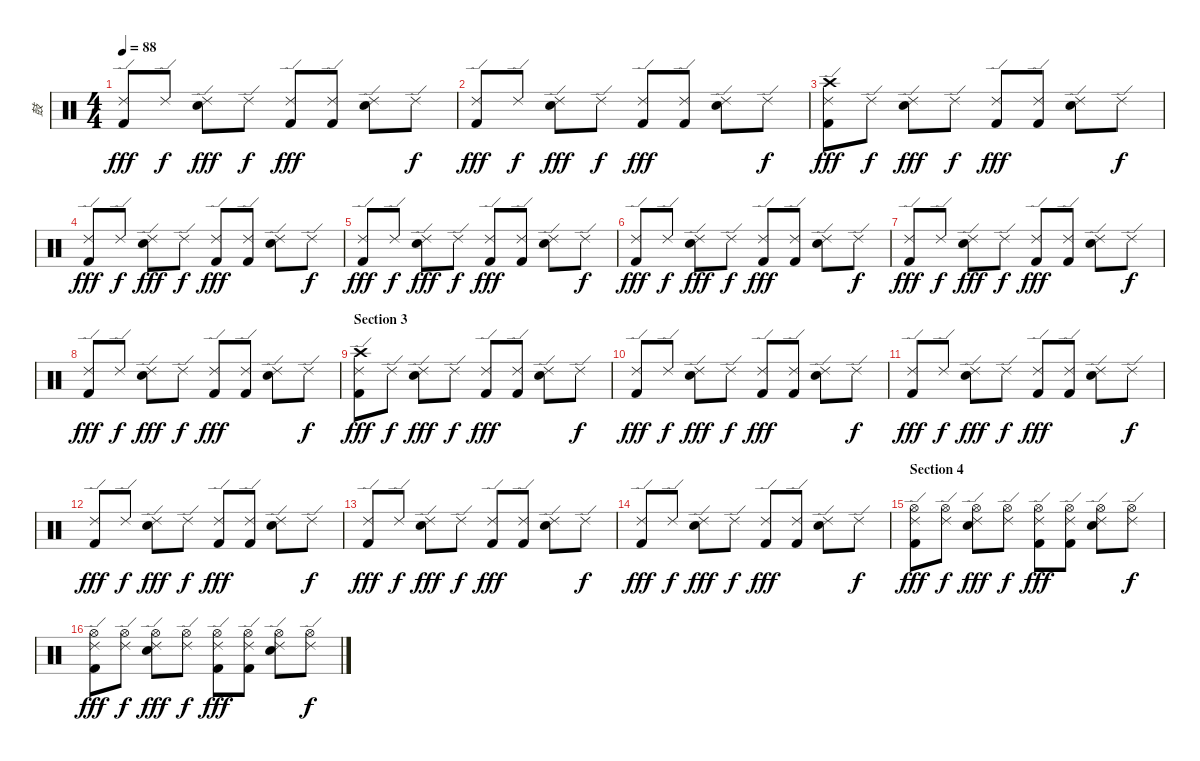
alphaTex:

\track ("鼓" "鼓") {instrument percussion}
\staff {score}
\articulation defaults
\ts (4 4)
\tempo 88
\clef neutral
\ks c
("Ride (edge) 2" "Kick (hit) 2").8{dy fff} "Ride (edge) 2".8{dy f} ("Ride (edge) 2" "Snare (hit) 2").8{dy fff} "Ride (edge) 2".8{dy f} ("Ride (edge) 2" "Kick (hit) 2").8{dy fff} ("Ride (edge) 2" "Kick (hit) 2").8 ("Ride (edge) 2" "Snare (hit) 2").8 "Ride (edge) 2".8{dy f} |
("Ride (edge) 2" "Kick (hit) 2").8{dy fff} "Ride (edge) 2".8{dy f} ("Ride (edge) 2" "Snare (hit) 2").8{dy fff} "Ride (edge) 2".8{dy f} ("Ride (edge) 2" "Kick (hit) 2").8{dy fff} ("Ride (edge) 2" "Kick (hit) 2").8 ("Ride (edge) 2" "Snare (hit) 2").8 "Ride (edge) 2".8{dy f} |
("Ride (edge) 2" "Crash high (hit)" "Kick (hit) 2").8{dy fff} "Ride (edge) 2".8{dy f} ("Ride (edge) 2" "Snare (hit) 2").8{dy fff} "Ride (edge) 2".8{dy f} ("Ride (edge) 2" "Kick (hit) 2").8{dy fff} ("Ride (edge) 2" "Kick (hit) 2").8 ("Ride (edge) 2" "Snare (hit) 2").8 "Ride (edge) 2".8{dy f} |
("Ride (edge) 2" "Kick (hit) 2").8{dy fff} "Ride (edge) 2".8{dy f} ("Ride (edge) 2" "Snare (hit) 2").8{dy fff} "Ride (edge) 2".8{dy f} ("Ride (edge) 2" "Kick (hit) 2").8{dy fff} ("Ride (edge) 2" "Kick (hit) 2").8 ("Ride (edge) 2" "Snare (hit) 2").8 "Ride (edge) 2".8{dy f} |
("Ride (edge) 2" "Kick (hit) 2").8{dy fff} "Ride (edge) 2".8{dy f} ("Ride (edge) 2" "Snare (hit) 2").8{dy fff} "Ride (edge) 2".8{dy f} ("Ride (edge) 2" "Kick (hit) 2").8{dy fff} ("Ride (edge) 2" "Kick (hit) 2").8 ("Ride (edge) 2" "Snare (hit) 2").8 "Ride (edge) 2".8{dy f} |
("Ride (edge) 2" "Kick (hit) 2").8{dy fff} "Ride (edge) 2".8{dy f} ("Ride (edge) 2" "Snare (hit) 2").8{dy fff} "Ride (edge) 2".8{dy f} ("Ride (edge) 2" "Kick (hit) 2").8{dy fff} ("Ride (edge) 2" "Kick (hit) 2").8 ("Ride (edge) 2" "Snare (hit) 2").8 "Ride (edge) 2".8{dy f} |
("Ride (edge) 2" "Kick (hit) 2").8{dy fff} "Ride (edge) 2".8{dy f} ("Ride (edge) 2" "Snare (hit) 2").8{dy fff} "Ride (edge) 2".8{dy f} ("Ride (edge) 2" "Kick (hit) 2").8{dy fff} ("Ride (edge) 2" "Kick (hit) 2").8 ("Ride (edge) 2" "Snare (hit) 2").8 "Ride (edge) 2".8{dy f} |
("Ride (edge) 2" "Kick (hit) 2").8{dy fff} "Ride (edge) 2".8{dy f} ("Ride (edge) 2" "Snare (hit) 2").8{dy fff} "Ride (edge) 2".8{dy f} ("Ride (edge) 2" "Kick (hit) 2").8{dy fff} ("Ride (edge) 2" "Kick (hit) 2").8 ("Ride (edge) 2" "Snare (hit) 2").8 "Ride (edge) 2".8{dy f} |
\section ("" "Section 3")
("Ride (edge) 2" "Crash high (hit)" "Kick (hit) 2").8{dy fff} "Ride (edge) 2".8{dy f} ("Ride (edge) 2" "Snare (hit) 2").8{dy fff} "Ride (edge) 2".8{dy f} ("Ride (edge) 2" "Kick (hit) 2").8{dy fff} ("Ride (edge) 2" "Kick (hit) 2").8 ("Ride (edge) 2" "Snare (hit) 2").8 "Ride (edge) 2".8{dy f} |
("Ride (edge) 2" "Kick (hit) 2").8{dy fff} "Ride (edge) 2".8{dy f} ("Ride (edge) 2" "Snare (hit) 2").8{dy fff} "Ride (edge) 2".8{dy f} ("Ride (edge) 2" "Kick (hit) 2").8{dy fff} ("Ride (edge) 2" "Kick (hit) 2").8 ("Ride (edge) 2" "Snare (hit) 2").8 "Ride (edge) 2".8{dy f} |
("Ride (edge) 2" "Kick (hit) 2").8{dy fff} "Ride (edge) 2".8{dy f} ("Ride (edge) 2" "Snare (hit) 2").8{dy fff} "Ride (edge) 2".8{dy f} ("Ride (edge) 2" "Kick (hit) 2").8{dy fff} ("Ride (edge) 2" "Kick (hit) 2").8 ("Ride (edge) 2" "Snare (hit) 2").8 "Ride (edge) 2".8{dy f} |
("Ride (edge) 2" "Kick (hit) 2").8{dy fff} "Ride (edge) 2".8{dy f} ("Ride (edge) 2" "Snare (hit) 2").8{dy fff} "Ride (edge) 2".8{dy f} ("Ride (edge) 2" "Kick (hit) 2").8{dy fff} ("Ride (edge) 2" "Kick (hit) 2").8 ("Ride (edge) 2" "Snare (hit) 2").8 "Ride (edge) 2".8{dy f} |
("Ride (edge) 2" "Kick (hit) 2").8{dy fff} "Ride (edge) 2".8{dy f} ("Ride (edge) 2" "Snare (hit) 2").8{dy fff} "Ride (edge) 2".8{dy f} ("Ride (edge) 2" "Kick (hit) 2").8{dy fff} ("Ride (edge) 2" "Kick (hit) 2").8 ("Ride (edge) 2" "Snare (hit) 2").8 "Ride (edge) 2".8{dy f} |
("Ride (edge) 2" "Kick (hit) 2").8{dy fff} "Ride (edge) 2".8{dy f} ("Ride (edge) 2" "Snare (hit) 2").8{dy fff} "Ride (edge) 2".8{dy f} ("Ride (edge) 2" "Kick (hit) 2").8{dy fff} ("Ride (edge) 2" "Kick (hit) 2").8 ("Ride (edge) 2" "Snare (hit) 2").8 "Ride (edge) 2".8{dy f} |
\section ("" "Section 4")
("Ride (edge) 2" "Hi-Hat (open)" "Kick (hit) 2").8{dy fff} ("Ride (edge) 2" "Hi-Hat (open)").8{dy f} ("Ride (edge) 2" "Hi-Hat (open)" "Snare (hit) 2").8{dy fff} ("Ride (edge) 2" "Hi-Hat (open)").8{dy f} ("Ride (edge) 2" "Hi-Hat (open)" "Kick (hit) 2").8{dy fff} ("Ride (edge) 2" "Hi-Hat (open)" "Kick (hit) 2").8 ("Ride (edge) 2" "Hi-Hat (open)" "Snare (hit) 2").8 ("Ride (edge) 2" "Hi-Hat (open)").8{dy f} |
("Ride (edge) 2" "Hi-Hat (open)" "Kick (hit) 2").8{dy fff} ("Ride (edge) 2" "Hi-Hat (open)").8{dy f} ("Ride (edge) 2" "Hi-Hat (open)" "Snare (hit) 2").8{dy fff} ("Ride (edge) 2" "Hi-Hat (open)").8{dy f} ("Ride (edge) 2" "Hi-Hat (open)" "Kick (hit) 2").8{dy fff} ("Ride (edge) 2" "Hi-Hat (open)" "Kick (hit) 2").8 ("Ride (edge) 2" "Hi-Hat (open)" "Snare (hit) 2").8 ("Ride (edge) 2" "Hi-Hat (open)").8{dy f}
